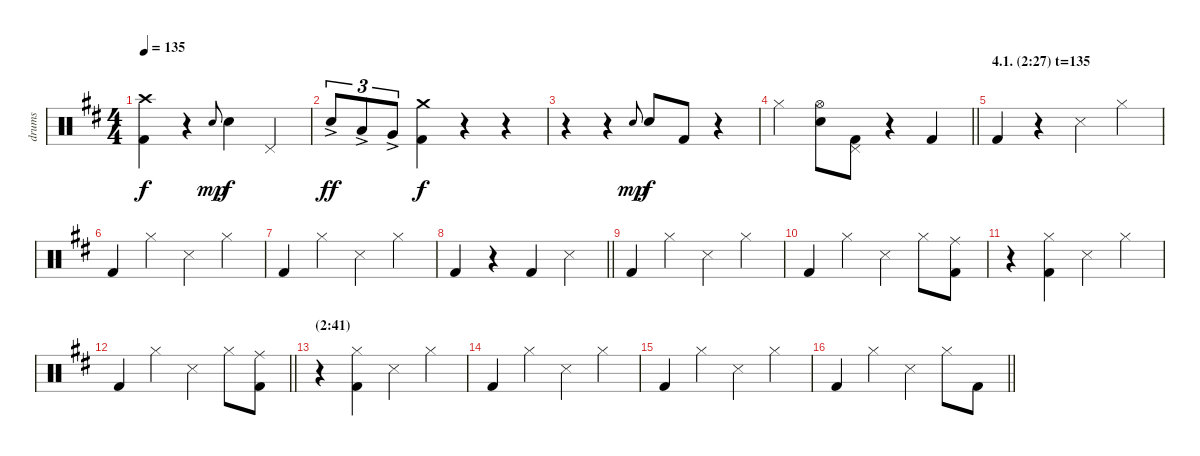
\track ("drums" "drums") {instrument percussion}
\staff {score}
\articulation defaults
\ts (4 4)
\tempo 135
\clef neutral
\ks d
("Crash high (hit)" "Kick (hit) 2").4{dy f} r.4 "Electric Snare (hit)".8{gr onbeat dy mp} "Electric Snare (hit)".4{dy f} "Pedal Hi-Hat (hit)".4 |
"Electric Snare (hit)"{ac}.8{tu (3 2) dy ff} "Low Floor Tom (hit)"{ac}.8{tu (3 2)} "Very Low Tom (hit)"{ac}.8{tu (3 2)} ("Crash medium (hit)" "Kick (hit) 2").4{dy f} r.4 r.4 |
r.4 r.4 "Electric Snare (hit)".8{gr onbeat dy mp} "Electric Snare (hit)".8{dy f} "Kick (hit) 2".8 r.4 |
\barLineRight lightlight "Hi-Hat (closed)".4
("Hi-Hat (open)" "Electric Snare (hit)").8 ("Pedal Hi-Hat (hit)" "Kick (hit) 2").8 r.4 "Kick (hit) 2".4 |
\section ("" "4.1. (2:27) t=135")
"Kick (hit) 2".4 r.4 "Snare (side stick) 3".4 "Hi-Hat (closed)".4 |
"Kick (hit) 2".4 "Hi-Hat (closed)".4 "Snare (side stick) 3".4 "Hi-Hat (closed)".4 |
"Kick (hit) 2".4 "Hi-Hat (closed)".4 "Snare (side stick) 3".4 "Hi-Hat (closed)".4 |
\barLineRight lightlight "Kick (hit) 2".4
r.4 "Kick (hit) 2".4 "Snare (side stick) 3".4 |
"Kick (hit) 2".4 "Hi-Hat (closed)".4 "Snare (side stick) 3".4 "Hi-Hat (closed)".4 |
"Kick (hit) 2".4 "Hi-Hat (closed)".4 "Snare (side stick) 3".4 "Hi-Hat (closed)".8 ("Ride (middle)" "Kick (hit) 2").8 |
r.4 ("Hi-Hat (closed)" "Kick (hit) 2").4 "Snare (side stick) 3".4 "Hi-Hat (closed)".4 |
\barLineRight lightlight "Kick (hit) 2".4 "Hi-Hat (closed)".4 "Snare (side stick) 3".4 "Hi-Hat (closed)".8
("Ride (middle)" "Kick (hit) 2").8 |
\section ("" "(2:41)")
r.4 ("Hi-Hat (closed)" "Kick (hit) 2").4 "Snare (side stick) 3".4 "Hi-Hat (closed)".4 |
"Kick (hit) 2".4 "Hi-Hat (closed)".4 "Snare (side stick) 3".4 "Hi-Hat (closed)".4 |
"Kick (hit) 2".4 "Hi-Hat (closed)".4 "Snare (side stick) 3".4 "Hi-Hat (closed)".4 |
\barLineRight lightlight "Kick (hit) 2".4 "Hi-Hat (closed)".4 "Snare (side stick) 3".4 "Hi-Hat (closed)".8 "Kick (hit) 2".8
